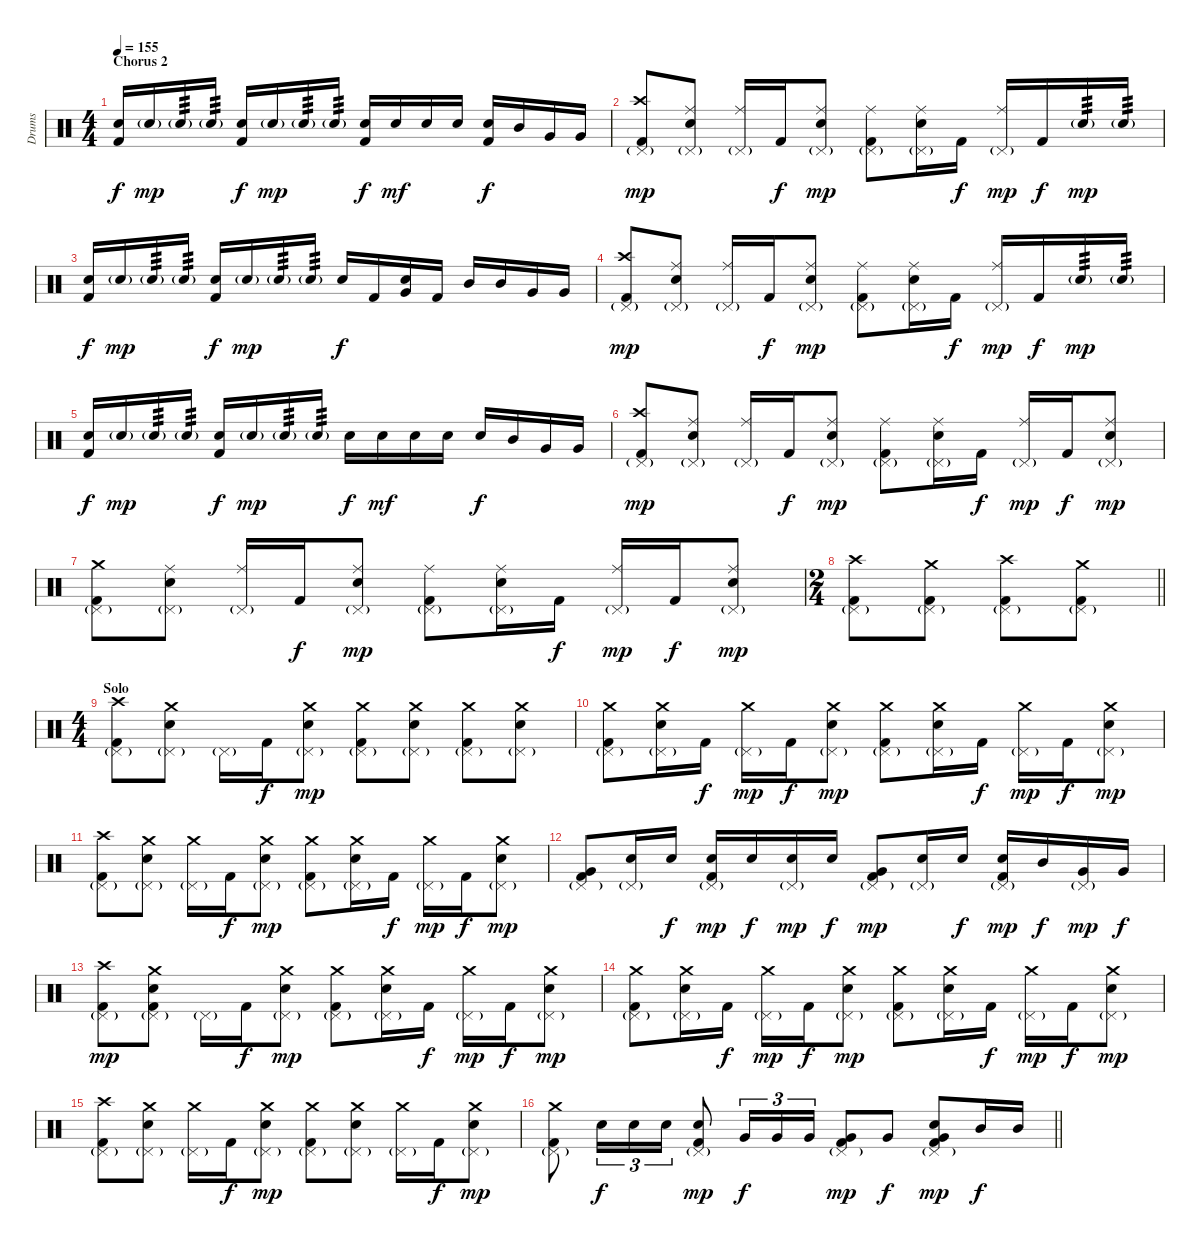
\track ("Drums" "Drums") {instrument percussion}
\staff {score}
\articulation defaults
\ts (4 4)
\section ("" "Chorus 2")
\tempo 155
\clef neutral
\ks c
("Electric Snare (hit)" "Kick (hit) 2").16{dy f} "Electric Snare (hit)"{g}.16{dy mp} "Electric Snare (hit)"{g}.16{tp 3} "Electric Snare (hit)"{g}.16{tp 3} ("Electric Snare (hit)" "Kick (hit) 2").16{dy f} "Electric Snare (hit)"{g}.16{dy mp} "Electric Snare (hit)"{g}.16{tp 3} "Electric Snare (hit)"{g}.16{tp 3} ("Electric Snare (hit)" "Kick (hit) 2").16{dy f} "Electric Snare (hit)".16{dy mf} "Electric Snare (hit)".16 "Electric Snare (hit)".16 ("Electric Snare (hit)" "Kick (hit) 2").16{dy f} "Mid Tom (hit)".16 "Very Low Tom (hit)".16 "Very Low Tom (hit)".16 |
("Crash high (hit)" "Pedal Hi-Hat (hit)"{g} "Kick (hit) 2").8{dy mp} ("Ride (middle)" "Pedal Hi-Hat (hit)"{g} "Electric Snare (hit)").8 ("Ride (middle)" "Pedal Hi-Hat (hit)"{g}).16 "Kick (hit) 2".16{dy f} ("Ride (middle)" "Pedal Hi-Hat (hit)"{g} "Electric Snare (hit)").8{dy mp} ("Ride (middle)" "Pedal Hi-Hat (hit)"{g} "Kick (hit) 2").8 ("Ride (middle)" "Pedal Hi-Hat (hit)"{g} "Electric Snare (hit)").16 "Kick (hit) 2".16{dy f} ("Ride (middle)" "Pedal Hi-Hat (hit)"{g}).16{dy mp} "Kick (hit) 2".16{dy f} "Electric Snare (hit)"{g}.16{tp 3 dy mp} "Electric Snare (hit)"{g}.16{tp 3} |
("Electric Snare (hit)" "Kick (hit) 2").16{dy f} "Electric Snare (hit)"{g}.16{dy mp} "Electric Snare (hit)"{g}.16{tp 3} "Electric Snare (hit)"{g}.16{tp 3} ("Electric Snare (hit)" "Kick (hit) 2").16{dy f} "Electric Snare (hit)"{g}.16{dy mp} "Electric Snare (hit)"{g}.16{tp 3} "Electric Snare (hit)"{g}.16{tp 3} "Electric Snare (hit)".16{dy f} "Kick (hit) 2".16 ("Electric Snare (hit)" "Very Low Tom (hit)").16 "Kick (hit) 2".16 "Mid Tom (hit)".16 "Mid Tom (hit)".16 "Very Low Tom (hit)".16 "Very Low Tom (hit)".16 |
("Crash high (hit)" "Pedal Hi-Hat (hit)"{g} "Kick (hit) 2").8{dy mp} ("Ride (middle)" "Pedal Hi-Hat (hit)"{g} "Electric Snare (hit)").8 ("Ride (middle)" "Pedal Hi-Hat (hit)"{g}).16 "Kick (hit) 2".16{dy f} ("Ride (middle)" "Pedal Hi-Hat (hit)"{g} "Electric Snare (hit)").8{dy mp} ("Ride (middle)" "Pedal Hi-Hat (hit)"{g} "Kick (hit) 2").8 ("Ride (middle)" "Pedal Hi-Hat (hit)"{g} "Electric Snare (hit)").16 "Kick (hit) 2".16{dy f} ("Ride (middle)" "Pedal Hi-Hat (hit)"{g}).16{dy mp} "Kick (hit) 2".16{dy f} "Electric Snare (hit)"{g}.16{tp 3 dy mp} "Electric Snare (hit)"{g}.16{tp 3} |
("Electric Snare (hit)" "Kick (hit) 2").16{dy f} "Electric Snare (hit)"{g}.16{dy mp} "Electric Snare (hit)"{g}.16{tp 3} "Electric Snare (hit)"{g}.16{tp 3} ("Electric Snare (hit)" "Kick (hit) 2").16{dy f} "Electric Snare (hit)"{g}.16{dy mp} "Electric Snare (hit)"{g}.16{tp 3} "Electric Snare (hit)"{g}.16{tp 3} "Electric Snare (hit)".16{dy f} "Electric Snare (hit)".16{dy mf} "Electric Snare (hit)".16 "Electric Snare (hit)".16 "Electric Snare (hit)".16{dy f} "Mid Tom (hit)".16 "Very Low Tom (hit)".16 "Very Low Tom (hit)".16 |
("Crash high (hit)" "Pedal Hi-Hat (hit)"{g} "Kick (hit) 2").8{dy mp} ("Ride (middle)" "Pedal Hi-Hat (hit)"{g} "Electric Snare (hit)").8 ("Ride (middle)" "Pedal Hi-Hat (hit)"{g}).16 "Kick (hit) 2".16{dy f} ("Ride (middle)" "Pedal Hi-Hat (hit)"{g} "Electric Snare (hit)").8{dy mp} ("Ride (middle)" "Pedal Hi-Hat (hit)"{g} "Kick (hit) 2").8 ("Ride (middle)" "Pedal Hi-Hat (hit)"{g} "Electric Snare (hit)").16 "Kick (hit) 2".16{dy f} ("Ride (middle)" "Pedal Hi-Hat (hit)"{g}).16{dy mp} "Kick (hit) 2".16{dy f} ("Ride (middle)" "Pedal Hi-Hat (hit)"{g} "Electric Snare (hit)").8{dy mp} |
("Crash medium (hit)" "Pedal Hi-Hat (hit)"{g} "Kick (hit) 2").8 ("Ride (middle)" "Pedal Hi-Hat (hit)"{g} "Electric Snare (hit)").8 ("Ride (middle)" "Pedal Hi-Hat (hit)"{g}).16 "Kick (hit) 2".16{dy f} ("Ride (middle)" "Pedal Hi-Hat (hit)"{g} "Electric Snare (hit)").8{dy mp} ("Ride (middle)" "Pedal Hi-Hat (hit)"{g} "Kick (hit) 2").8 ("Ride (middle)" "Pedal Hi-Hat (hit)"{g} "Electric Snare (hit)").16 "Kick (hit) 2".16{dy f} ("Ride (middle)" "Pedal Hi-Hat (hit)"{g}).16{dy mp} "Kick (hit) 2".16{dy f} ("Ride (middle)" "Pedal Hi-Hat (hit)"{g} "Electric Snare (hit)").8{dy mp} |
\ts (2 4)
\barLineRight lightlight
("Crash high (hit)" "Pedal Hi-Hat (hit)"{g} "Kick (hit) 2").8 ("Crash medium (hit)" "Pedal Hi-Hat (hit)"{g} "Kick (hit) 2").8 ("Crash high (hit)" "Pedal Hi-Hat (hit)"{g} "Kick (hit) 2").8 ("Crash medium (hit)" "Pedal Hi-Hat (hit)"{g} "Kick (hit) 2").8 |
\ts (4 4)
\section ("" "Solo")
("Crash high (hit)" "Pedal Hi-Hat (hit)"{g} "Kick (hit) 2").8 ("Crash medium (hit)" "Pedal Hi-Hat (hit)"{g} "Electric Snare (hit)").8 "Pedal Hi-Hat (hit)"{g}.16 "Kick (hit) 2".16{dy f} ("Crash medium (hit)" "Pedal Hi-Hat (hit)"{g} "Electric Snare (hit)").8{dy mp} ("Crash medium (hit)" "Pedal Hi-Hat (hit)"{g} "Kick (hit) 2").8 ("Crash medium (hit)" "Pedal Hi-Hat (hit)"{g} "Electric Snare (hit)").8 ("Crash medium (hit)" "Pedal Hi-Hat (hit)"{g} "Kick (hit) 2").8 ("Crash medium (hit)" "Pedal Hi-Hat (hit)"{g} "Electric Snare (hit)").8 |
("Crash medium (hit)" "Pedal Hi-Hat (hit)"{g} "Kick (hit) 2").8 ("Crash medium (hit)" "Pedal Hi-Hat (hit)"{g} "Electric Snare (hit)").16 "Kick (hit) 2".16{dy f} ("Crash medium (hit)" "Pedal Hi-Hat (hit)"{g}).16{dy mp} "Kick (hit) 2".16{dy f} ("Crash medium (hit)" "Pedal Hi-Hat (hit)"{g} "Electric Snare (hit)").8{dy mp} ("Crash medium (hit)" "Pedal Hi-Hat (hit)"{g} "Kick (hit) 2").8 ("Crash medium (hit)" "Pedal Hi-Hat (hit)"{g} "Electric Snare (hit)").16 "Kick (hit) 2".16{dy f} ("Crash medium (hit)" "Pedal Hi-Hat (hit)"{g}).16{dy mp} "Kick (hit) 2".16{dy f} ("Crash medium (hit)" "Pedal Hi-Hat (hit)"{g} "Electric Snare (hit)").8{dy mp} |
("Crash high (hit)" "Pedal Hi-Hat (hit)"{g} "Kick (hit) 2").8 ("Crash medium (hit)" "Pedal Hi-Hat (hit)"{g} "Electric Snare (hit)").8 ("Crash medium (hit)" "Pedal Hi-Hat (hit)"{g}).16 "Kick (hit) 2".16{dy f} ("Crash medium (hit)" "Pedal Hi-Hat (hit)"{g} "Electric Snare (hit)").8{dy mp} ("Crash medium (hit)" "Pedal Hi-Hat (hit)"{g} "Kick (hit) 2").8 ("Crash medium (hit)" "Pedal Hi-Hat (hit)"{g} "Electric Snare (hit)").16 "Kick (hit) 2".16{dy f} ("Crash medium (hit)" "Pedal Hi-Hat (hit)"{g}).16{dy mp} "Kick (hit) 2".16{dy f} ("Crash medium (hit)" "Pedal Hi-Hat (hit)"{g} "Electric Snare (hit)").8{dy mp} |
("Pedal Hi-Hat (hit)"{g} "Very Low Tom (hit)" "Kick (hit) 2").8 ("Pedal Hi-Hat (hit)"{g} "Electric Snare (hit)").16 "Electric Snare (hit)".16{dy f} ("Pedal Hi-Hat (hit)"{g} "Electric Snare (hit)" "Kick (hit) 2").16{dy mp} "Electric Snare (hit)".16{dy f} ("Pedal Hi-Hat (hit)"{g} "Electric Snare (hit)").16{dy mp} "Electric Snare (hit)".16{dy f} ("Pedal Hi-Hat (hit)"{g} "Very Low Tom (hit)" "Kick (hit) 2").8{dy mp} ("Pedal Hi-Hat (hit)"{g} "Electric Snare (hit)").16 "Electric Snare (hit)".16{dy f} ("Pedal Hi-Hat (hit)"{g} "Electric Snare (hit)" "Kick (hit) 2").16{dy mp} "Mid Tom (hit)".16{dy f} ("Pedal Hi-Hat (hit)"{g} "Very Low Tom (hit)").16{dy mp} "Very Low Tom (hit)".16{dy f} |
("Crash high (hit)" "Pedal Hi-Hat (hit)"{g} "Kick (hit) 2").8{dy mp} ("Crash medium (hit)" "Pedal Hi-Hat (hit)"{g} "Electric Snare (hit)" "Kick (hit) 2").8 "Pedal Hi-Hat (hit)"{g}.16 "Kick (hit) 2".16{dy f} ("Crash medium (hit)" "Pedal Hi-Hat (hit)"{g} "Electric Snare (hit)").8{dy mp} ("Crash medium (hit)" "Pedal Hi-Hat (hit)"{g} "Kick (hit) 2").8 ("Crash medium (hit)" "Pedal Hi-Hat (hit)"{g} "Electric Snare (hit)").16 "Kick (hit) 2".16{dy f} ("Crash medium (hit)" "Pedal Hi-Hat (hit)"{g}).16{dy mp} "Kick (hit) 2".16{dy f} ("Crash medium (hit)" "Pedal Hi-Hat (hit)"{g} "Electric Snare (hit)").8{dy mp} |
("Crash medium (hit)" "Pedal Hi-Hat (hit)"{g} "Kick (hit) 2").8 ("Crash medium (hit)" "Pedal Hi-Hat (hit)"{g} "Electric Snare (hit)").16 "Kick (hit) 2".16{dy f} ("Crash medium (hit)" "Pedal Hi-Hat (hit)"{g}).16{dy mp} "Kick (hit) 2".16{dy f} ("Crash medium (hit)" "Pedal Hi-Hat (hit)"{g} "Electric Snare (hit)").8{dy mp} ("Crash medium (hit)" "Pedal Hi-Hat (hit)"{g} "Kick (hit) 2").8 ("Crash medium (hit)" "Pedal Hi-Hat (hit)"{g} "Electric Snare (hit)").16 "Kick (hit) 2".16{dy f} ("Crash medium (hit)" "Pedal Hi-Hat (hit)"{g}).16{dy mp} "Kick (hit) 2".16{dy f} ("Crash medium (hit)" "Pedal Hi-Hat (hit)"{g} "Electric Snare (hit)").8{dy mp} |
("Crash high (hit)" "Pedal Hi-Hat (hit)"{g} "Kick (hit) 2").8 ("Crash medium (hit)" "Pedal Hi-Hat (hit)"{g} "Electric Snare (hit)").8 ("Crash medium (hit)" "Pedal Hi-Hat (hit)"{g}).16 "Kick (hit) 2".16{dy f} ("Crash medium (hit)" "Pedal Hi-Hat (hit)"{g} "Electric Snare (hit)").8{dy mp} ("Crash medium (hit)" "Pedal Hi-Hat (hit)"{g} "Kick (hit) 2").8 ("Crash medium (hit)" "Pedal Hi-Hat (hit)"{g} "Electric Snare (hit)").8 ("Crash medium (hit)" "Pedal Hi-Hat (hit)"{g}).16 "Kick (hit) 2".16{dy f} ("Crash medium (hit)" "Pedal Hi-Hat (hit)"{g} "Electric Snare (hit)").8{dy mp} |
\barLineRight lightlight
("Crash medium (hit)" "Pedal Hi-Hat (hit)"{g} "Kick (hit) 2").8 "Electric Snare (hit)".16{tu (3 2) dy f} "Electric Snare (hit)".16{tu (3 2)} "Electric Snare (hit)".16{tu (3 2)} ("Pedal Hi-Hat (hit)"{g} "Electric Snare (hit)" "Kick (hit) 2").8{dy mp} "Very Low Tom (hit)".16{tu (3 2) dy f} "Very Low Tom (hit)".16{tu (3 2)} "Very Low Tom (hit)".16{tu (3 2)} ("Pedal Hi-Hat (hit)"{g} "Very Low Tom (hit)" "Kick (hit) 2").8{dy mp} "Very Low Tom (hit)".8{dy f} ("Pedal Hi-Hat (hit)"{g} "Electric Snare (hit)" "Very Low Tom (hit)" "Kick (hit) 2").8{dy mp} "Mid Tom (hit)".16{dy f} "Mid Tom (hit)".16
